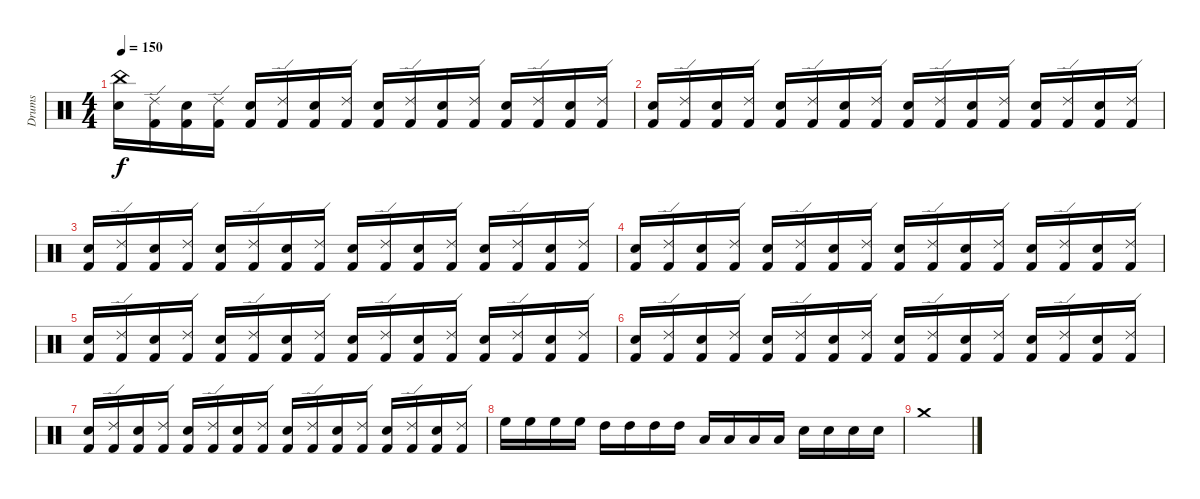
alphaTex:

\track ("Drums" "Drums") {instrument percussion}
\staff {score}
\articulation defaults
\ts (4 4)
\tempo 150
\clef neutral
\ks c
("China (hit)" "Snare (hit) 2").16{dy f} ("Ride (edge) 2" "Kick (hit) 2").16 ("Snare (hit) 2" "Kick (hit) 2").16 ("Ride (edge) 2" "Kick (hit) 2").16 ("Snare (hit) 2" "Kick (hit) 2").16 ("Ride (edge) 2" "Kick (hit) 2").16 ("Snare (hit) 2" "Kick (hit) 2").16 ("Ride (edge) 2" "Kick (hit) 2").16 ("Snare (hit) 2" "Kick (hit) 2").16 ("Ride (edge) 2" "Kick (hit) 2").16 ("Snare (hit) 2" "Kick (hit) 2").16 ("Ride (edge) 2" "Kick (hit) 2").16 ("Snare (hit) 2" "Kick (hit) 2").16 ("Ride (edge) 2" "Kick (hit) 2").16 ("Snare (hit) 2" "Kick (hit) 2").16 ("Ride (edge) 2" "Kick (hit) 2").16 |
("Snare (hit) 2" "Kick (hit) 2").16 ("Ride (edge) 2" "Kick (hit) 2").16 ("Snare (hit) 2" "Kick (hit) 2").16 ("Ride (edge) 2" "Kick (hit) 2").16 ("Snare (hit) 2" "Kick (hit) 2").16 ("Ride (edge) 2" "Kick (hit) 2").16 ("Snare (hit) 2" "Kick (hit) 2").16 ("Ride (edge) 2" "Kick (hit) 2").16 ("Snare (hit) 2" "Kick (hit) 2").16 ("Ride (edge) 2" "Kick (hit) 2").16 ("Snare (hit) 2" "Kick (hit) 2").16 ("Ride (edge) 2" "Kick (hit) 2").16 ("Snare (hit) 2" "Kick (hit) 2").16 ("Ride (edge) 2" "Kick (hit) 2").16 ("Snare (hit) 2" "Kick (hit) 2").16 ("Ride (edge) 2" "Kick (hit) 2").16 |
("Snare (hit) 2" "Kick (hit) 2").16 ("Ride (edge) 2" "Kick (hit) 2").16 ("Snare (hit) 2" "Kick (hit) 2").16 ("Ride (edge) 2" "Kick (hit) 2").16 ("Snare (hit) 2" "Kick (hit) 2").16 ("Ride (edge) 2" "Kick (hit) 2").16 ("Snare (hit) 2" "Kick (hit) 2").16 ("Ride (edge) 2" "Kick (hit) 2").16 ("Snare (hit) 2" "Kick (hit) 2").16 ("Ride (edge) 2" "Kick (hit) 2").16 ("Snare (hit) 2" "Kick (hit) 2").16 ("Ride (edge) 2" "Kick (hit) 2").16 ("Snare (hit) 2" "Kick (hit) 2").16 ("Ride (edge) 2" "Kick (hit) 2").16 ("Snare (hit) 2" "Kick (hit) 2").16 ("Ride (edge) 2" "Kick (hit) 2").16 |
("Snare (hit) 2" "Kick (hit) 2").16 ("Ride (edge) 2" "Kick (hit) 2").16 ("Snare (hit) 2" "Kick (hit) 2").16 ("Ride (edge) 2" "Kick (hit) 2").16 ("Snare (hit) 2" "Kick (hit) 2").16 ("Ride (edge) 2" "Kick (hit) 2").16 ("Snare (hit) 2" "Kick (hit) 2").16 ("Ride (edge) 2" "Kick (hit) 2").16 ("Snare (hit) 2" "Kick (hit) 2").16 ("Ride (edge) 2" "Kick (hit) 2").16 ("Snare (hit) 2" "Kick (hit) 2").16 ("Ride (edge) 2" "Kick (hit) 2").16 ("Snare (hit) 2" "Kick (hit) 2").16 ("Ride (edge) 2" "Kick (hit) 2").16 ("Snare (hit) 2" "Kick (hit) 2").16 ("Ride (edge) 2" "Kick (hit) 2").16 |
("Snare (hit) 2" "Kick (hit) 2").16 ("Ride (edge) 2" "Kick (hit) 2").16 ("Snare (hit) 2" "Kick (hit) 2").16 ("Ride (edge) 2" "Kick (hit) 2").16 ("Snare (hit) 2" "Kick (hit) 2").16 ("Ride (edge) 2" "Kick (hit) 2").16 ("Snare (hit) 2" "Kick (hit) 2").16 ("Ride (edge) 2" "Kick (hit) 2").16 ("Snare (hit) 2" "Kick (hit) 2").16 ("Ride (edge) 2" "Kick (hit) 2").16 ("Snare (hit) 2" "Kick (hit) 2").16 ("Ride (edge) 2" "Kick (hit) 2").16 ("Snare (hit) 2" "Kick (hit) 2").16 ("Ride (edge) 2" "Kick (hit) 2").16 ("Snare (hit) 2" "Kick (hit) 2").16 ("Ride (edge) 2" "Kick (hit) 2").16 |
("Snare (hit) 2" "Kick (hit) 2").16 ("Ride (edge) 2" "Kick (hit) 2").16 ("Snare (hit) 2" "Kick (hit) 2").16 ("Ride (edge) 2" "Kick (hit) 2").16 ("Snare (hit) 2" "Kick (hit) 2").16 ("Ride (edge) 2" "Kick (hit) 2").16 ("Snare (hit) 2" "Kick (hit) 2").16 ("Ride (edge) 2" "Kick (hit) 2").16 ("Snare (hit) 2" "Kick (hit) 2").16 ("Ride (edge) 2" "Kick (hit) 2").16 ("Snare (hit) 2" "Kick (hit) 2").16 ("Ride (edge) 2" "Kick (hit) 2").16 ("Snare (hit) 2" "Kick (hit) 2").16 ("Ride (edge) 2" "Kick (hit) 2").16 ("Snare (hit) 2" "Kick (hit) 2").16 ("Ride (edge) 2" "Kick (hit) 2").16 |
("Snare (hit) 2" "Kick (hit) 2").16 ("Ride (edge) 2" "Kick (hit) 2").16 ("Snare (hit) 2" "Kick (hit) 2").16 ("Ride (edge) 2" "Kick (hit) 2").16 ("Snare (hit) 2" "Kick (hit) 2").16 ("Ride (edge) 2" "Kick (hit) 2").16 ("Snare (hit) 2" "Kick (hit) 2").16 ("Ride (edge) 2" "Kick (hit) 2").16 ("Snare (hit) 2" "Kick (hit) 2").16 ("Ride (edge) 2" "Kick (hit) 2").16 ("Snare (hit) 2" "Kick (hit) 2").16 ("Ride (edge) 2" "Kick (hit) 2").16 ("Snare (hit) 2" "Kick (hit) 2").16 ("Ride (edge) 2" "Kick (hit) 2").16 ("Snare (hit) 2" "Kick (hit) 2").16 ("Ride (edge) 2" "Kick (hit) 2").16 |
"High Floor Tom (hit)".16 "High Floor Tom (hit)".16 "High Floor Tom (hit)".16 "High Floor Tom (hit)".16 "High Tom (hit)".16 "High Tom (hit)".16 "High Tom (hit)".16 "High Tom (hit)".16 "Low Tom (hit)".16 "Low Tom (hit)".16 "Low Tom (hit)".16 "Low Tom (hit)".16 "Snare (hit) 2".16 "Snare (hit) 2".16 "Snare (hit) 2".16 "Snare (hit) 2".16 |
"Crash medium (hit)".1
